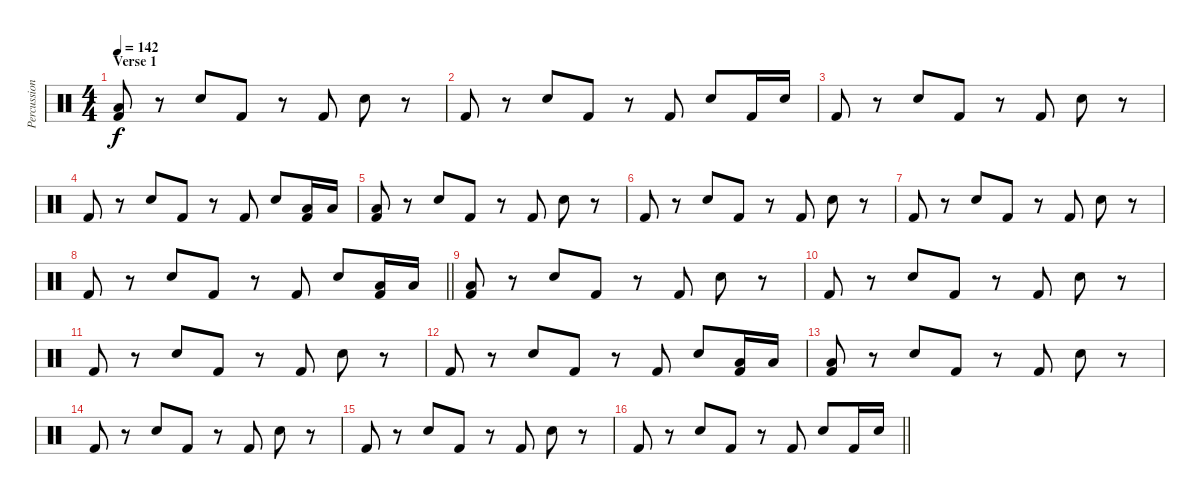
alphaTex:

\track ("Percussion" "Percussion") {instrument percussion}
\staff {score}
\articulation defaults
\ts (4 4)
\section ("" "Verse 1")
\tempo 142
\clef neutral
\ks c
("Low Tom (hit)" "Kick (hit) 2").8{dy f} r.8 "Electric Snare (hit)".8 "Kick (hit) 2".8 r.8 "Kick (hit) 2".8 "Electric Snare (hit)".8 r.8 |
"Kick (hit) 2".8 r.8 "Electric Snare (hit)".8 "Kick (hit) 2".8 r.8 "Kick (hit) 2".8 "Electric Snare (hit)".8 "Kick (hit) 2".16 "Electric Snare (hit)".16 |
"Kick (hit) 2".8 r.8 "Electric Snare (hit)".8 "Kick (hit) 2".8 r.8 "Kick (hit) 2".8 "Electric Snare (hit)".8 r.8 |
"Kick (hit) 2".8 r.8 "Electric Snare (hit)".8 "Kick (hit) 2".8 r.8 "Kick (hit) 2".8 "Electric Snare (hit)".8 ("Low Tom (hit)" "Kick (hit) 2").16 "Low Tom (hit)".16 |
("Low Tom (hit)" "Kick (hit) 2").8 r.8 "Electric Snare (hit)".8 "Kick (hit) 2".8 r.8 "Kick (hit) 2".8 "Electric Snare (hit)".8 r.8 |
"Kick (hit) 2".8 r.8 "Electric Snare (hit)".8 "Kick (hit) 2".8 r.8 "Kick (hit) 2".8 "Electric Snare (hit)".8 r.8 |
"Kick (hit) 2".8 r.8 "Electric Snare (hit)".8 "Kick (hit) 2".8 r.8 "Kick (hit) 2".8 "Electric Snare (hit)".8 r.8 |
\barLineRight lightlight "Kick (hit) 2".8
r.8 "Electric Snare (hit)".8 "Kick (hit) 2".8 r.8 "Kick (hit) 2".8 "Electric Snare (hit)".8 ("Low Tom (hit)" "Kick (hit) 2").16 "Low Tom (hit)".16 |
("Low Tom (hit)" "Kick (hit) 2").8 r.8 "Electric Snare (hit)".8 "Kick (hit) 2".8 r.8 "Kick (hit) 2".8 "Electric Snare (hit)".8 r.8 |
"Kick (hit) 2".8 r.8 "Electric Snare (hit)".8 "Kick (hit) 2".8 r.8 "Kick (hit) 2".8 "Electric Snare (hit)".8 r.8 |
"Kick (hit) 2".8 r.8 "Electric Snare (hit)".8 "Kick (hit) 2".8 r.8 "Kick (hit) 2".8 "Electric Snare (hit)".8 r.8 |
"Kick (hit) 2".8 r.8 "Electric Snare (hit)".8 "Kick (hit) 2".8 r.8 "Kick (hit) 2".8 "Electric Snare (hit)".8 ("Low Tom (hit)" "Kick (hit) 2").16 "Low Tom (hit)".16 |
("Low Tom (hit)" "Kick (hit) 2").8 r.8 "Electric Snare (hit)".8 "Kick (hit) 2".8 r.8 "Kick (hit) 2".8 "Electric Snare (hit)".8 r.8 |
"Kick (hit) 2".8 r.8 "Electric Snare (hit)".8 "Kick (hit) 2".8 r.8 "Kick (hit) 2".8 "Electric Snare (hit)".8 r.8 |
"Kick (hit) 2".8 r.8 "Electric Snare (hit)".8 "Kick (hit) 2".8 r.8 "Kick (hit) 2".8 "Electric Snare (hit)".8 r.8 |
\barLineRight lightlight "Kick (hit) 2".8
r.8 "Electric Snare (hit)".8 "Kick (hit) 2".8 r.8 "Kick (hit) 2".8 "Electric Snare (hit)".8 "Kick (hit) 2".16 "Electric Snare (hit)".16
